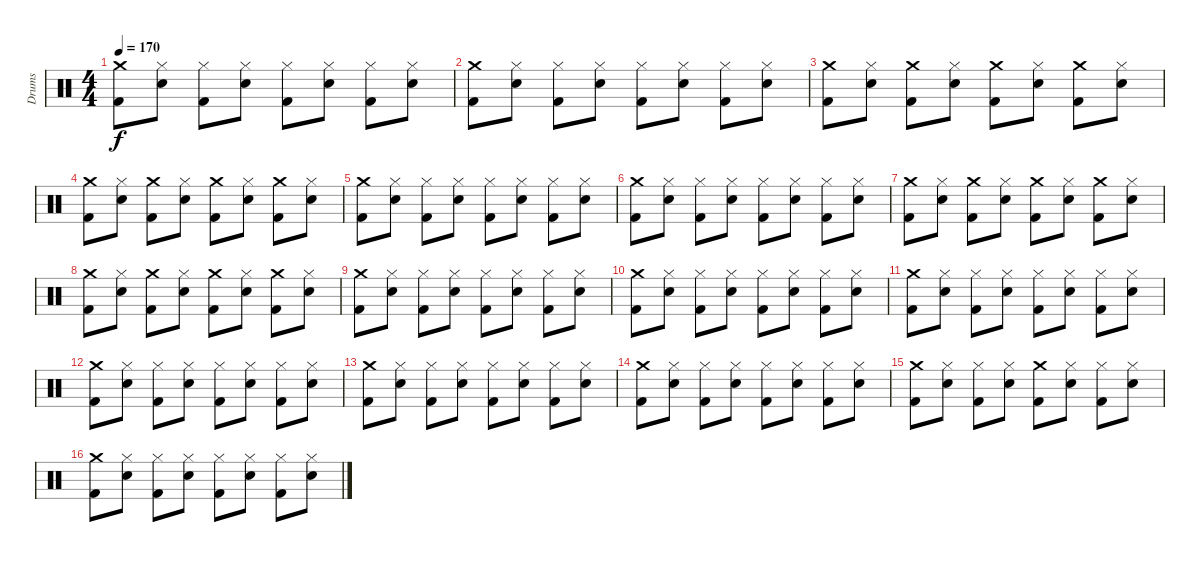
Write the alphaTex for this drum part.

\track ("Drums" "Drums") {instrument percussion}
\staff {score}
\articulation defaults
\ts (4 4)
\tempo 170
\clef neutral
\ks c
("Crash medium (hit)" "Kick (hit) 2").8{dy f} ("Snare (hit) 2" "Hi-Hat (closed)").8 ("Hi-Hat (closed)" "Kick (hit) 2").8 ("Snare (hit) 2" "Hi-Hat (closed)").8 ("Hi-Hat (closed)" "Kick (hit) 2").8 ("Snare (hit) 2" "Hi-Hat (closed)").8 ("Hi-Hat (closed)" "Kick (hit) 2").8 ("Snare (hit) 2" "Hi-Hat (closed)").8 |
("Crash medium (hit)" "Kick (hit) 2").8 ("Snare (hit) 2" "Hi-Hat (closed)").8 ("Hi-Hat (closed)" "Kick (hit) 2").8 ("Snare (hit) 2" "Hi-Hat (closed)").8 ("Hi-Hat (closed)" "Kick (hit) 2").8 ("Snare (hit) 2" "Hi-Hat (closed)").8 ("Hi-Hat (closed)" "Kick (hit) 2").8 ("Snare (hit) 2" "Hi-Hat (closed)").8 |
("Crash medium (hit)" "Kick (hit) 2").8 ("Snare (hit) 2" "Hi-Hat (closed)").8 ("Crash medium (hit)" "Kick (hit) 2").8 ("Snare (hit) 2" "Hi-Hat (closed)").8 ("Crash medium (hit)" "Kick (hit) 2").8 ("Snare (hit) 2" "Hi-Hat (closed)").8 ("Crash medium (hit)" "Kick (hit) 2").8 ("Snare (hit) 2" "Hi-Hat (closed)").8 |
("Crash medium (hit)" "Kick (hit) 2").8 ("Snare (hit) 2" "Hi-Hat (closed)").8 ("Crash medium (hit)" "Kick (hit) 2").8 ("Snare (hit) 2" "Hi-Hat (closed)").8 ("Crash medium (hit)" "Kick (hit) 2").8 ("Snare (hit) 2" "Hi-Hat (closed)").8 ("Crash medium (hit)" "Kick (hit) 2").8 ("Snare (hit) 2" "Hi-Hat (closed)").8 |
("Crash medium (hit)" "Kick (hit) 2").8 ("Snare (hit) 2" "Hi-Hat (closed)").8 ("Hi-Hat (closed)" "Kick (hit) 2").8 ("Snare (hit) 2" "Hi-Hat (closed)").8 ("Hi-Hat (closed)" "Kick (hit) 2").8 ("Snare (hit) 2" "Hi-Hat (closed)").8 ("Hi-Hat (closed)" "Kick (hit) 2").8 ("Snare (hit) 2" "Hi-Hat (closed)").8 |
("Crash medium (hit)" "Kick (hit) 2").8 ("Snare (hit) 2" "Hi-Hat (closed)").8 ("Hi-Hat (closed)" "Kick (hit) 2").8 ("Snare (hit) 2" "Hi-Hat (closed)").8 ("Hi-Hat (closed)" "Kick (hit) 2").8 ("Snare (hit) 2" "Hi-Hat (closed)").8 ("Hi-Hat (closed)" "Kick (hit) 2").8 ("Snare (hit) 2" "Hi-Hat (closed)").8 |
("Crash medium (hit)" "Kick (hit) 2").8 ("Snare (hit) 2" "Hi-Hat (closed)").8 ("Crash medium (hit)" "Kick (hit) 2").8 ("Snare (hit) 2" "Hi-Hat (closed)").8 ("Crash medium (hit)" "Kick (hit) 2").8 ("Snare (hit) 2" "Hi-Hat (closed)").8 ("Crash medium (hit)" "Kick (hit) 2").8 ("Snare (hit) 2" "Hi-Hat (closed)").8 |
("Crash medium (hit)" "Kick (hit) 2").8 ("Snare (hit) 2" "Hi-Hat (closed)").8 ("Crash medium (hit)" "Kick (hit) 2").8 ("Snare (hit) 2" "Hi-Hat (closed)").8 ("Crash medium (hit)" "Kick (hit) 2").8 ("Snare (hit) 2" "Hi-Hat (closed)").8 ("Crash medium (hit)" "Kick (hit) 2").8 ("Snare (hit) 2" "Hi-Hat (closed)").8 |
("Crash medium (hit)" "Kick (hit) 2").8 ("Snare (hit) 2" "Hi-Hat (closed)").8 ("Hi-Hat (closed)" "Kick (hit) 2").8 ("Snare (hit) 2" "Hi-Hat (closed)").8 ("Hi-Hat (closed)" "Kick (hit) 2").8 ("Snare (hit) 2" "Hi-Hat (closed)").8 ("Hi-Hat (closed)" "Kick (hit) 2").8 ("Snare (hit) 2" "Hi-Hat (closed)").8 |
("Crash medium (hit)" "Kick (hit) 2").8 ("Snare (hit) 2" "Hi-Hat (closed)").8 ("Hi-Hat (closed)" "Kick (hit) 2").8 ("Snare (hit) 2" "Hi-Hat (closed)").8 ("Hi-Hat (closed)" "Kick (hit) 2").8 ("Snare (hit) 2" "Hi-Hat (closed)").8 ("Hi-Hat (closed)" "Kick (hit) 2").8 ("Snare (hit) 2" "Hi-Hat (closed)").8 |
("Crash medium (hit)" "Kick (hit) 2").8 ("Snare (hit) 2" "Hi-Hat (closed)").8 ("Hi-Hat (closed)" "Kick (hit) 2").8 ("Snare (hit) 2" "Hi-Hat (closed)").8 ("Hi-Hat (closed)" "Kick (hit) 2").8 ("Snare (hit) 2" "Hi-Hat (closed)").8 ("Hi-Hat (closed)" "Kick (hit) 2").8 ("Snare (hit) 2" "Hi-Hat (closed)").8 |
("Crash medium (hit)" "Kick (hit) 2").8 ("Snare (hit) 2" "Hi-Hat (closed)").8 ("Hi-Hat (closed)" "Kick (hit) 2").8 ("Snare (hit) 2" "Hi-Hat (closed)").8 ("Hi-Hat (closed)" "Kick (hit) 2").8 ("Snare (hit) 2" "Hi-Hat (closed)").8 ("Hi-Hat (closed)" "Kick (hit) 2").8 ("Snare (hit) 2" "Hi-Hat (closed)").8 |
("Crash medium (hit)" "Kick (hit) 2").8 ("Snare (hit) 2" "Hi-Hat (closed)").8 ("Hi-Hat (closed)" "Kick (hit) 2").8 ("Snare (hit) 2" "Hi-Hat (closed)").8 ("Hi-Hat (closed)" "Kick (hit) 2").8 ("Snare (hit) 2" "Hi-Hat (closed)").8 ("Hi-Hat (closed)" "Kick (hit) 2").8 ("Snare (hit) 2" "Hi-Hat (closed)").8 |
("Crash medium (hit)" "Kick (hit) 2").8 ("Snare (hit) 2" "Hi-Hat (closed)").8 ("Hi-Hat (closed)" "Kick (hit) 2").8 ("Snare (hit) 2" "Hi-Hat (closed)").8 ("Hi-Hat (closed)" "Kick (hit) 2").8 ("Snare (hit) 2" "Hi-Hat (closed)").8 ("Hi-Hat (closed)" "Kick (hit) 2").8 ("Snare (hit) 2" "Hi-Hat (closed)").8 |
("Crash medium (hit)" "Kick (hit) 2").8 ("Snare (hit) 2" "Hi-Hat (closed)").8 ("Hi-Hat (closed)" "Kick (hit) 2").8 ("Snare (hit) 2" "Hi-Hat (closed)").8 ("Crash medium (hit)" "Kick (hit) 2").8 ("Snare (hit) 2" "Hi-Hat (closed)").8 ("Hi-Hat (closed)" "Kick (hit) 2").8 ("Snare (hit) 2" "Hi-Hat (closed)").8 |
("Crash medium (hit)" "Kick (hit) 2").8 ("Snare (hit) 2" "Hi-Hat (closed)").8 ("Hi-Hat (closed)" "Kick (hit) 2").8 ("Snare (hit) 2" "Hi-Hat (closed)").8 ("Hi-Hat (closed)" "Kick (hit) 2").8 ("Snare (hit) 2" "Hi-Hat (closed)").8 ("Hi-Hat (closed)" "Kick (hit) 2").8 ("Snare (hit) 2" "Hi-Hat (closed)").8
